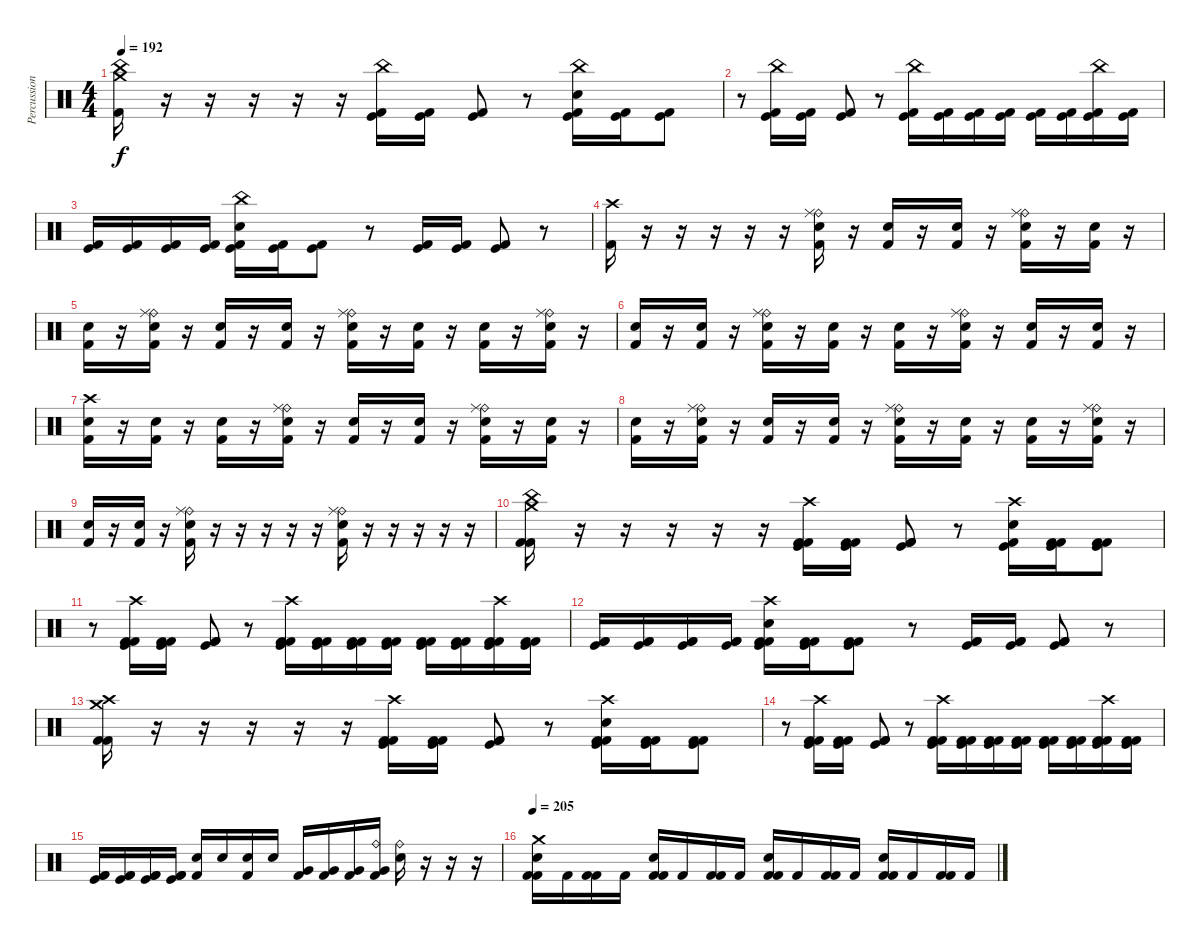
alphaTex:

\track ("Percussion" "Percussion") {instrument percussion}
\staff {score}
\articulation defaults
\ts (4 4)
\tempo 192
\clef neutral
\ks c
("Crash medium (hit)" "China (hit)" "Kick (hit) 2").16{dy f} r.16 r.16 r.16 r.16 r.16 ("Kick (hit)" "China (hit)" "Kick (hit) 2").16 ("Kick (hit)" "Kick (hit) 2").16 ("Kick (hit)" "Kick (hit) 2").8 r.8 ("Kick (hit)" "China (hit)" "Electric Snare (hit)" "Kick (hit) 2").16 ("Kick (hit)" "Kick (hit) 2").16 ("Kick (hit)" "Kick (hit) 2").8 |
r.8 ("Kick (hit)" "China (hit)" "Kick (hit) 2").16 ("Kick (hit)" "Kick (hit) 2").16 ("Kick (hit)" "Kick (hit) 2").8 r.8 ("Kick (hit)" "China (hit)" "Kick (hit) 2").16 ("Kick (hit)" "Kick (hit) 2").16 ("Kick (hit)" "Kick (hit) 2").16 ("Kick (hit)" "Kick (hit) 2").16 ("Kick (hit)" "Kick (hit) 2").16 ("Kick (hit)" "Kick (hit) 2").16 ("Kick (hit)" "China (hit)" "Kick (hit) 2").16 ("Kick (hit)" "Kick (hit) 2").16 |
("Kick (hit)" "Kick (hit) 2").16 ("Kick (hit)" "Kick (hit) 2").16 ("Kick (hit)" "Kick (hit) 2").16 ("Kick (hit)" "Kick (hit) 2").16 ("Kick (hit)" "China (hit)" "Electric Snare (hit)" "Kick (hit) 2").16 ("Kick (hit)" "Kick (hit) 2").16 ("Kick (hit)" "Kick (hit) 2").8 r.8 ("Kick (hit)" "Kick (hit) 2").16 ("Kick (hit)" "Kick (hit) 2").16 ("Kick (hit)" "Kick (hit) 2").8 r.8 |
("Crash high (hit)" "Kick (hit) 2").16 r.16 r.16 r.16 r.16 r.16 ("Ride (bell)" "Ride (middle)" "Electric Snare (hit)" "Kick (hit) 2").16 r.16 ("Electric Snare (hit)" "Kick (hit) 2").16 r.16 ("Electric Snare (hit)" "Kick (hit) 2").16 r.16 ("Ride (bell)" "Ride (middle)" "Electric Snare (hit)" "Kick (hit) 2").16 r.16 ("Electric Snare (hit)" "Kick (hit) 2").16 r.16 |
("Electric Snare (hit)" "Kick (hit) 2").16 r.16 ("Ride (bell)" "Ride (middle)" "Electric Snare (hit)" "Kick (hit) 2").16 r.16 ("Electric Snare (hit)" "Kick (hit) 2").16 r.16 ("Electric Snare (hit)" "Kick (hit) 2").16 r.16 ("Ride (bell)" "Ride (middle)" "Electric Snare (hit)" "Kick (hit) 2").16 r.16 ("Electric Snare (hit)" "Kick (hit) 2").16 r.16 ("Electric Snare (hit)" "Kick (hit) 2").16 r.16 ("Ride (bell)" "Ride (middle)" "Electric Snare (hit)" "Kick (hit) 2").16 r.16 |
("Electric Snare (hit)" "Kick (hit) 2").16 r.16 ("Electric Snare (hit)" "Kick (hit) 2").16 r.16 ("Ride (bell)" "Ride (middle)" "Electric Snare (hit)" "Kick (hit) 2").16 r.16 ("Electric Snare (hit)" "Kick (hit) 2").16 r.16 ("Electric Snare (hit)" "Kick (hit) 2").16 r.16 ("Ride (bell)" "Ride (middle)" "Electric Snare (hit)" "Kick (hit) 2").16 r.16 ("Electric Snare (hit)" "Kick (hit) 2").16 r.16 ("Electric Snare (hit)" "Kick (hit) 2").16 r.16 |
("Crash high (hit)" "Electric Snare (hit)" "Kick (hit) 2").16 r.16 ("Electric Snare (hit)" "Kick (hit) 2").16 r.16 ("Electric Snare (hit)" "Kick (hit) 2").16 r.16 ("Ride (bell)" "Ride (middle)" "Electric Snare (hit)" "Kick (hit) 2").16 r.16 ("Electric Snare (hit)" "Kick (hit) 2").16 r.16 ("Electric Snare (hit)" "Kick (hit) 2").16 r.16 ("Ride (bell)" "Ride (middle)" "Electric Snare (hit)" "Kick (hit) 2").16 r.16 ("Electric Snare (hit)" "Kick (hit) 2").16 r.16 |
("Electric Snare (hit)" "Kick (hit) 2").16 r.16 ("Ride (bell)" "Ride (middle)" "Electric Snare (hit)" "Kick (hit) 2").16 r.16 ("Electric Snare (hit)" "Kick (hit) 2").16 r.16 ("Electric Snare (hit)" "Kick (hit) 2").16 r.16 ("Ride (bell)" "Ride (middle)" "Electric Snare (hit)" "Kick (hit) 2").16 r.16 ("Electric Snare (hit)" "Kick (hit) 2").16 r.16 ("Electric Snare (hit)" "Kick (hit) 2").16 r.16 ("Ride (bell)" "Ride (middle)" "Electric Snare (hit)" "Kick (hit) 2").16 r.16 |
("Electric Snare (hit)" "Kick (hit) 2").16 r.16 ("Electric Snare (hit)" "Kick (hit) 2").16 r.16 ("Ride (bell)" "Ride (middle)" "Electric Snare (hit)" "Kick (hit) 2").16 r.16 r.16 r.16 r.16 r.16 ("Ride (bell)" "Ride (middle)" "Electric Snare (hit)" "Kick (hit) 2").16 r.16 r.16 r.16 r.16 r.16 |
("Crash medium (hit)" "China (hit)" "Kick (hit) 2" "Kick (hit) 2").16 r.16 r.16 r.16 r.16 r.16 ("Kick (hit)" "Crash high (hit)" "Kick (hit) 2" "Kick (hit) 2").16 ("Kick (hit)" "Kick (hit) 2" "Kick (hit) 2").16 ("Kick (hit)" "Kick (hit) 2" "Kick (hit) 2").8 r.8 ("Kick (hit)" "Crash high (hit)" "Electric Snare (hit)" "Kick (hit) 2").16 ("Kick (hit)" "Kick (hit) 2" "Kick (hit) 2").16 ("Kick (hit)" "Kick (hit) 2" "Kick (hit) 2").8 |
r.8 ("Kick (hit)" "Crash high (hit)" "Kick (hit) 2" "Kick (hit) 2").16 ("Kick (hit)" "Kick (hit) 2" "Kick (hit) 2").16 ("Kick (hit)" "Kick (hit) 2" "Kick (hit) 2").8 r.8 ("Kick (hit)" "Crash high (hit)" "Kick (hit) 2" "Kick (hit) 2").16 ("Kick (hit)" "Kick (hit) 2" "Kick (hit) 2").16 ("Kick (hit)" "Kick (hit) 2" "Kick (hit) 2").16 ("Kick (hit)" "Kick (hit) 2" "Kick (hit) 2").16 ("Kick (hit)" "Kick (hit) 2" "Kick (hit) 2").16 ("Kick (hit)" "Kick (hit) 2" "Kick (hit) 2").16 ("Kick (hit)" "Crash high (hit)" "Kick (hit) 2" "Kick (hit) 2").16 ("Kick (hit)" "Kick (hit) 2" "Kick (hit) 2").16 |
("Kick (hit)" "Kick (hit) 2" "Kick (hit) 2").16 ("Kick (hit)" "Kick (hit) 2" "Kick (hit) 2").16 ("Kick (hit)" "Kick (hit) 2" "Kick (hit) 2").16 ("Kick (hit)" "Kick (hit) 2" "Kick (hit) 2").16 ("Kick (hit)" "Crash high (hit)" "Kick (hit) 2" "Electric Snare (hit)" "Kick (hit) 2").16 ("Kick (hit)" "Kick (hit) 2" "Kick (hit) 2").16 ("Kick (hit)" "Kick (hit) 2" "Kick (hit) 2").8 r.8 ("Kick (hit)" "Kick (hit) 2" "Kick (hit) 2").16 ("Kick (hit)" "Kick (hit) 2" "Kick (hit) 2").16 ("Kick (hit)" "Kick (hit) 2" "Kick (hit) 2").8 r.8 |
("Crash medium (hit)" "Crash high (hit)" "Kick (hit) 2" "Kick (hit) 2").16 r.16 r.16 r.16 r.16 r.16 ("Kick (hit)" "Crash high (hit)" "Kick (hit) 2" "Kick (hit) 2").16 ("Kick (hit)" "Kick (hit) 2" "Kick (hit) 2").16 ("Kick (hit)" "Kick (hit) 2" "Kick (hit) 2").8 r.8 ("Kick (hit)" "Crash high (hit)" "Kick (hit) 2" "Electric Snare (hit)" "Kick (hit) 2").16 ("Kick (hit)" "Kick (hit) 2" "Kick (hit) 2").16 ("Kick (hit)" "Kick (hit) 2" "Kick (hit) 2").8 |
r.8 ("Kick (hit)" "Crash high (hit)" "Kick (hit) 2" "Kick (hit) 2").16 ("Kick (hit)" "Kick (hit) 2" "Kick (hit) 2").16 ("Kick (hit)" "Kick (hit) 2" "Kick (hit) 2").8 r.8 ("Kick (hit)" "Crash high (hit)" "Kick (hit) 2" "Kick (hit) 2").16 ("Kick (hit)" "Kick (hit) 2" "Kick (hit) 2").16 ("Kick (hit)" "Kick (hit) 2" "Kick (hit) 2").16 ("Kick (hit)" "Kick (hit) 2" "Kick (hit) 2").16 ("Kick (hit)" "Kick (hit) 2" "Kick (hit) 2").16 ("Kick (hit)" "Kick (hit) 2" "Kick (hit) 2").16 ("Kick (hit)" "Crash high (hit)" "Kick (hit) 2" "Kick (hit) 2").16 ("Kick (hit)" "Kick (hit) 2" "Kick (hit) 2").16 |
("Kick (hit)" "Kick (hit) 2" "Kick (hit) 2").16 ("Kick (hit)" "Kick (hit) 2" "Kick (hit) 2").16 ("Kick (hit)" "Kick (hit) 2" "Kick (hit) 2").16 ("Kick (hit)" "Kick (hit) 2" "Kick (hit) 2").16 ("Electric Snare (hit)" "Kick (hit) 2").16 "Electric Snare (hit)".16 ("Electric Snare (hit)" "Kick (hit) 2").16 "Electric Snare (hit)".16 ("Very Low Tom (hit)" "Kick (hit) 2").16 ("Very Low Tom (hit)" "Kick (hit) 2").16 ("Very Low Tom (hit)" "Kick (hit) 2").16 ("Very Low Tom (hit)" "Ride (bell)" "Kick (hit) 2").16 ("Ride (bell)" "Electric Snare (hit)").16 r.16 r.16 r.16 |
\tempo 205
("Kick (hit) 2" "Electric Snare (hit)" "Crash medium (hit)" "Kick (hit) 2").16 "Kick (hit) 2".16 ("Kick (hit) 2" "Kick (hit) 2").16 "Kick (hit) 2".16 ("Kick (hit) 2" "Electric Snare (hit)" "Kick (hit) 2").16 "Kick (hit) 2".16 ("Kick (hit) 2" "Kick (hit) 2").16 "Kick (hit) 2".16 ("Kick (hit) 2" "Electric Snare (hit)" "Kick (hit) 2").16 "Kick (hit) 2".16 ("Kick (hit) 2" "Kick (hit) 2").16 "Kick (hit) 2".16 ("Kick (hit) 2" "Electric Snare (hit)" "Kick (hit) 2").16 "Kick (hit) 2".16 ("Kick (hit) 2" "Kick (hit) 2").16 "Kick (hit) 2".16
